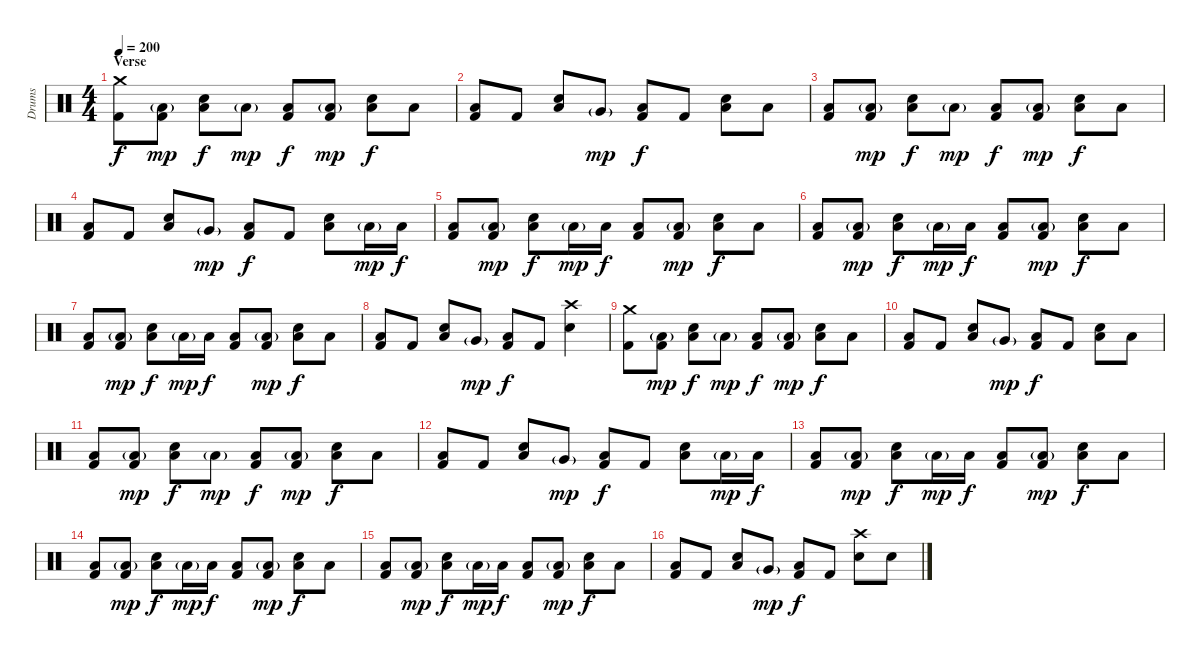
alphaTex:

\track ("Drums" "Drums") {instrument percussion}
\staff {score}
\articulation defaults
\ts (4 4)
\section ("" "Verse")
\tempo 200
\clef neutral
\ks c
("Crash medium (hit)" "Kick (hit) 2").8{dy f} ("Low Floor Tom (hit)"{g} "Kick (hit) 2").8{dy mp} ("Low Floor Tom (hit)" "Electric Snare (hit)").8{dy f} "Low Floor Tom (hit)"{g}.8{dy mp} ("Low Floor Tom (hit)" "Kick (hit) 2").8{dy f} ("Low Floor Tom (hit)"{g} "Kick (hit) 2").8{dy mp} ("Low Floor Tom (hit)" "Electric Snare (hit)").8{dy f} "Low Floor Tom (hit)".8 |
("Low Floor Tom (hit)" "Kick (hit) 2").8 "Kick (hit) 2".8 ("Low Floor Tom (hit)" "Electric Snare (hit)").8 "Very Low Tom (hit)"{g}.8{dy mp} ("Low Floor Tom (hit)" "Kick (hit) 2").8{dy f} "Kick (hit) 2".8 ("Low Floor Tom (hit)" "Electric Snare (hit)").8 "Low Floor Tom (hit)".8 |
("Low Floor Tom (hit)" "Kick (hit) 2").8 ("Low Floor Tom (hit)"{g} "Kick (hit) 2").8{dy mp} ("Low Floor Tom (hit)" "Electric Snare (hit)").8{dy f} "Low Floor Tom (hit)"{g}.8{dy mp} ("Low Floor Tom (hit)" "Kick (hit) 2").8{dy f} ("Low Floor Tom (hit)"{g} "Kick (hit) 2").8{dy mp} ("Low Floor Tom (hit)" "Electric Snare (hit)").8{dy f} "Low Floor Tom (hit)".8 |
("Low Floor Tom (hit)" "Kick (hit) 2").8 "Kick (hit) 2".8 ("Low Floor Tom (hit)" "Electric Snare (hit)").8 "Very Low Tom (hit)"{g}.8{dy mp} ("Low Floor Tom (hit)" "Kick (hit) 2").8{dy f} "Kick (hit) 2".8 ("Low Floor Tom (hit)" "Electric Snare (hit)").8 "Low Floor Tom (hit)"{g}.16{dy mp} "Low Floor Tom (hit)".16{dy f} |
("Low Floor Tom (hit)" "Kick (hit) 2").8 ("Low Floor Tom (hit)"{g} "Kick (hit) 2").8{dy mp} ("Low Floor Tom (hit)" "Electric Snare (hit)").8{dy f} "Low Floor Tom (hit)"{g}.16{dy mp} "Low Floor Tom (hit)".16{dy f} ("Low Floor Tom (hit)" "Kick (hit) 2").8 ("Low Floor Tom (hit)"{g} "Kick (hit) 2").8{dy mp} ("Low Floor Tom (hit)" "Electric Snare (hit)").8{dy f} "Low Floor Tom (hit)".8 |
("Low Floor Tom (hit)" "Kick (hit) 2").8 ("Low Floor Tom (hit)"{g} "Kick (hit) 2").8{dy mp} ("Low Floor Tom (hit)" "Electric Snare (hit)").8{dy f} "Low Floor Tom (hit)"{g}.16{dy mp} "Low Floor Tom (hit)".16{dy f} ("Low Floor Tom (hit)" "Kick (hit) 2").8 ("Low Floor Tom (hit)"{g} "Kick (hit) 2").8{dy mp} ("Low Floor Tom (hit)" "Electric Snare (hit)").8{dy f} "Low Floor Tom (hit)".8 |
("Low Floor Tom (hit)" "Kick (hit) 2").8 ("Low Floor Tom (hit)"{g} "Kick (hit) 2").8{dy mp} ("Low Floor Tom (hit)" "Electric Snare (hit)").8{dy f} "Low Floor Tom (hit)"{g}.16{dy mp} "Low Floor Tom (hit)".16{dy f} ("Low Floor Tom (hit)" "Kick (hit) 2").8 ("Low Floor Tom (hit)"{g} "Kick (hit) 2").8{dy mp} ("Low Floor Tom (hit)" "Electric Snare (hit)").8{dy f} "Low Floor Tom (hit)".8 |
("Low Floor Tom (hit)" "Kick (hit) 2").8 "Kick (hit) 2".8 ("Low Floor Tom (hit)" "Electric Snare (hit)").8 "Very Low Tom (hit)"{g}.8{dy mp} ("Low Floor Tom (hit)" "Kick (hit) 2").8{dy f} "Kick (hit) 2".8 ("Crash high (hit)" "Electric Snare (hit)").4 |
("Crash medium (hit)" "Kick (hit) 2").8 ("Low Floor Tom (hit)"{g} "Kick (hit) 2").8{dy mp} ("Low Floor Tom (hit)" "Electric Snare (hit)").8{dy f} "Low Floor Tom (hit)"{g}.8{dy mp} ("Low Floor Tom (hit)" "Kick (hit) 2").8{dy f} ("Low Floor Tom (hit)"{g} "Kick (hit) 2").8{dy mp} ("Low Floor Tom (hit)" "Electric Snare (hit)").8{dy f} "Low Floor Tom (hit)".8 |
("Low Floor Tom (hit)" "Kick (hit) 2").8 "Kick (hit) 2".8 ("Low Floor Tom (hit)" "Electric Snare (hit)").8 "Very Low Tom (hit)"{g}.8{dy mp} ("Low Floor Tom (hit)" "Kick (hit) 2").8{dy f} "Kick (hit) 2".8 ("Low Floor Tom (hit)" "Electric Snare (hit)").8 "Low Floor Tom (hit)".8 |
("Low Floor Tom (hit)" "Kick (hit) 2").8 ("Low Floor Tom (hit)"{g} "Kick (hit) 2").8{dy mp} ("Low Floor Tom (hit)" "Electric Snare (hit)").8{dy f} "Low Floor Tom (hit)"{g}.8{dy mp} ("Low Floor Tom (hit)" "Kick (hit) 2").8{dy f} ("Low Floor Tom (hit)"{g} "Kick (hit) 2").8{dy mp} ("Low Floor Tom (hit)" "Electric Snare (hit)").8{dy f} "Low Floor Tom (hit)".8 |
("Low Floor Tom (hit)" "Kick (hit) 2").8 "Kick (hit) 2".8 ("Low Floor Tom (hit)" "Electric Snare (hit)").8 "Very Low Tom (hit)"{g}.8{dy mp} ("Low Floor Tom (hit)" "Kick (hit) 2").8{dy f} "Kick (hit) 2".8 ("Low Floor Tom (hit)" "Electric Snare (hit)").8 "Low Floor Tom (hit)"{g}.16{dy mp} "Low Floor Tom (hit)".16{dy f} |
("Low Floor Tom (hit)" "Kick (hit) 2").8 ("Low Floor Tom (hit)"{g} "Kick (hit) 2").8{dy mp} ("Low Floor Tom (hit)" "Electric Snare (hit)").8{dy f} "Low Floor Tom (hit)"{g}.16{dy mp} "Low Floor Tom (hit)".16{dy f} ("Low Floor Tom (hit)" "Kick (hit) 2").8 ("Low Floor Tom (hit)"{g} "Kick (hit) 2").8{dy mp} ("Low Floor Tom (hit)" "Electric Snare (hit)").8{dy f} "Low Floor Tom (hit)".8 |
("Low Floor Tom (hit)" "Kick (hit) 2").8 ("Low Floor Tom (hit)"{g} "Kick (hit) 2").8{dy mp} ("Low Floor Tom (hit)" "Electric Snare (hit)").8{dy f} "Low Floor Tom (hit)"{g}.16{dy mp} "Low Floor Tom (hit)".16{dy f} ("Low Floor Tom (hit)" "Kick (hit) 2").8 ("Low Floor Tom (hit)"{g} "Kick (hit) 2").8{dy mp} ("Low Floor Tom (hit)" "Electric Snare (hit)").8{dy f} "Low Floor Tom (hit)".8 |
("Low Floor Tom (hit)" "Kick (hit) 2").8 ("Low Floor Tom (hit)"{g} "Kick (hit) 2").8{dy mp} ("Low Floor Tom (hit)" "Electric Snare (hit)").8{dy f} "Low Floor Tom (hit)"{g}.16{dy mp} "Low Floor Tom (hit)".16{dy f} ("Low Floor Tom (hit)" "Kick (hit) 2").8 ("Low Floor Tom (hit)"{g} "Kick (hit) 2").8{dy mp} ("Low Floor Tom (hit)" "Electric Snare (hit)").8{dy f} "Low Floor Tom (hit)".8 |
("Low Floor Tom (hit)" "Kick (hit) 2").8 "Kick (hit) 2".8 ("Low Floor Tom (hit)" "Electric Snare (hit)").8 "Very Low Tom (hit)"{g}.8{dy mp} ("Low Floor Tom (hit)" "Kick (hit) 2").8{dy f} "Kick (hit) 2".8 ("Crash high (hit)" "Electric Snare (hit)").8 "Electric Snare (hit)".8
